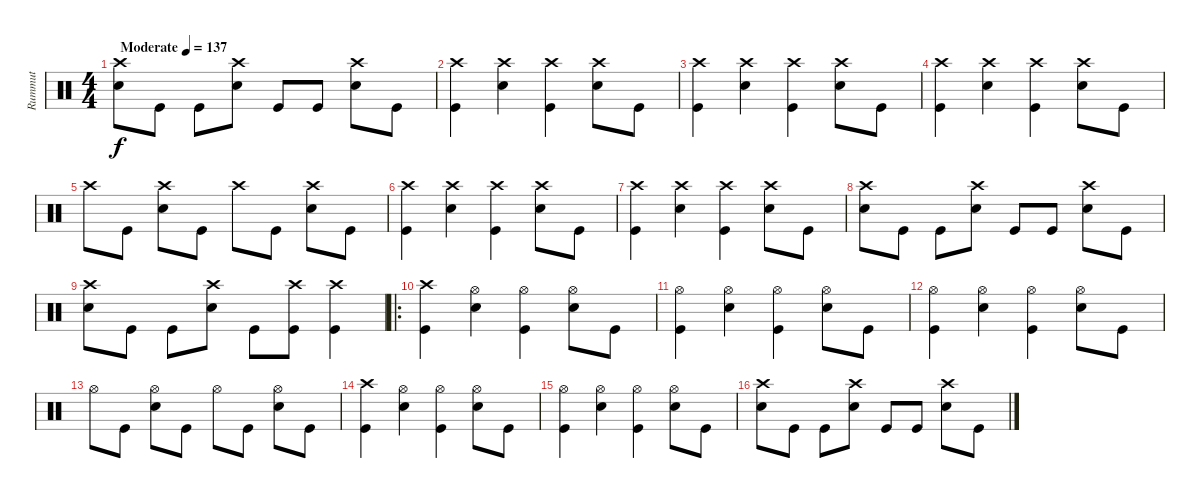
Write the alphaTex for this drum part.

\track ("Rummut" "Rummut") {instrument percussion}
\staff {score}
\articulation defaults
\ts (4 4)
\tempo (137 "Moderate")
\clef neutral
\ks c
("Snare (hit) 2" "Crash high (hit)").8{dy f} "Kick (hit)".8 "Kick (hit)".8 ("Snare (hit) 2" "Crash high (hit)").8 "Kick (hit)".8 "Kick (hit)".8 ("Snare (hit) 2" "Crash high (hit)").8 "Kick (hit)".8 |
("Kick (hit)" "Crash high (hit)").4 ("Snare (hit) 2" "Crash high (hit)").4 ("Kick (hit)" "Crash high (hit)").4 ("Snare (hit) 2" "Crash high (hit)").8 "Kick (hit)".8 |
("Kick (hit)" "Crash high (hit)").4 ("Snare (hit) 2" "Crash high (hit)").4 ("Kick (hit)" "Crash high (hit)").4 ("Snare (hit) 2" "Crash high (hit)").8 "Kick (hit)".8 |
("Kick (hit)" "Crash high (hit)").4 ("Snare (hit) 2" "Crash high (hit)").4 ("Kick (hit)" "Crash high (hit)").4 ("Snare (hit) 2" "Crash high (hit)").8 "Kick (hit)".8 |
"Crash high (hit)".8 "Kick (hit)".8 ("Snare (hit) 2" "Crash high (hit)").8 "Kick (hit)".8 "Crash high (hit)".8 "Kick (hit)".8 ("Snare (hit) 2" "Crash high (hit)").8 "Kick (hit)".8 |
("Kick (hit)" "Crash high (hit)").4 ("Snare (hit) 2" "Crash high (hit)").4 ("Kick (hit)" "Crash high (hit)").4 ("Snare (hit) 2" "Crash high (hit)").8 "Kick (hit)".8 |
("Kick (hit)" "Crash high (hit)").4 ("Snare (hit) 2" "Crash high (hit)").4 ("Kick (hit)" "Crash high (hit)").4 ("Snare (hit) 2" "Crash high (hit)").8 "Kick (hit)".8 |
("Snare (hit) 2" "Crash high (hit)").8 "Kick (hit)".8 "Kick (hit)".8 ("Snare (hit) 2" "Crash high (hit)").8 "Kick (hit)".8 "Kick (hit)".8 ("Snare (hit) 2" "Crash high (hit)").8 "Kick (hit)".8 |
("Snare (hit) 2" "Crash high (hit)").8 "Kick (hit)".8 "Kick (hit)".8 ("Snare (hit) 2" "Crash high (hit)").8 "Kick (hit)".8 ("Kick (hit)" "Crash high (hit)").8 ("Kick (hit)" "Crash high (hit)").4 |
\ro
("Kick (hit)" "Crash high (hit)").4 ("Snare (hit) 2" "Hi-Hat (open)").4 ("Kick (hit)" "Hi-Hat (open)").4 ("Snare (hit) 2" "Hi-Hat (open)").8 "Kick (hit)".8 |
("Kick (hit)" "Hi-Hat (open)").4 ("Snare (hit) 2" "Hi-Hat (open)").4 ("Kick (hit)" "Hi-Hat (open)").4 ("Snare (hit) 2" "Hi-Hat (open)").8 "Kick (hit)".8 |
("Kick (hit)" "Hi-Hat (open)").4 ("Snare (hit) 2" "Hi-Hat (open)").4 ("Kick (hit)" "Hi-Hat (open)").4 ("Snare (hit) 2" "Hi-Hat (open)").8 "Kick (hit)".8 |
"Hi-Hat (open)".8 "Kick (hit)".8 ("Snare (hit) 2" "Hi-Hat (open)").8 "Kick (hit)".8 "Hi-Hat (open)".8 "Kick (hit)".8 ("Snare (hit) 2" "Hi-Hat (open)").8 "Kick (hit)".8 |
("Kick (hit)" "Crash high (hit)").4 ("Snare (hit) 2" "Hi-Hat (open)").4 ("Kick (hit)" "Hi-Hat (open)").4 ("Snare (hit) 2" "Hi-Hat (open)").8 "Kick (hit)".8 |
("Kick (hit)" "Hi-Hat (open)").4 ("Snare (hit) 2" "Hi-Hat (open)").4 ("Kick (hit)" "Hi-Hat (open)").4 ("Snare (hit) 2" "Hi-Hat (open)").8 "Kick (hit)".8 |
("Snare (hit) 2" "Crash high (hit)").8 "Kick (hit)".8 "Kick (hit)".8 ("Snare (hit) 2" "Crash high (hit)").8 "Kick (hit)".8 "Kick (hit)".8 ("Snare (hit) 2" "Crash high (hit)").8 "Kick (hit)".8
